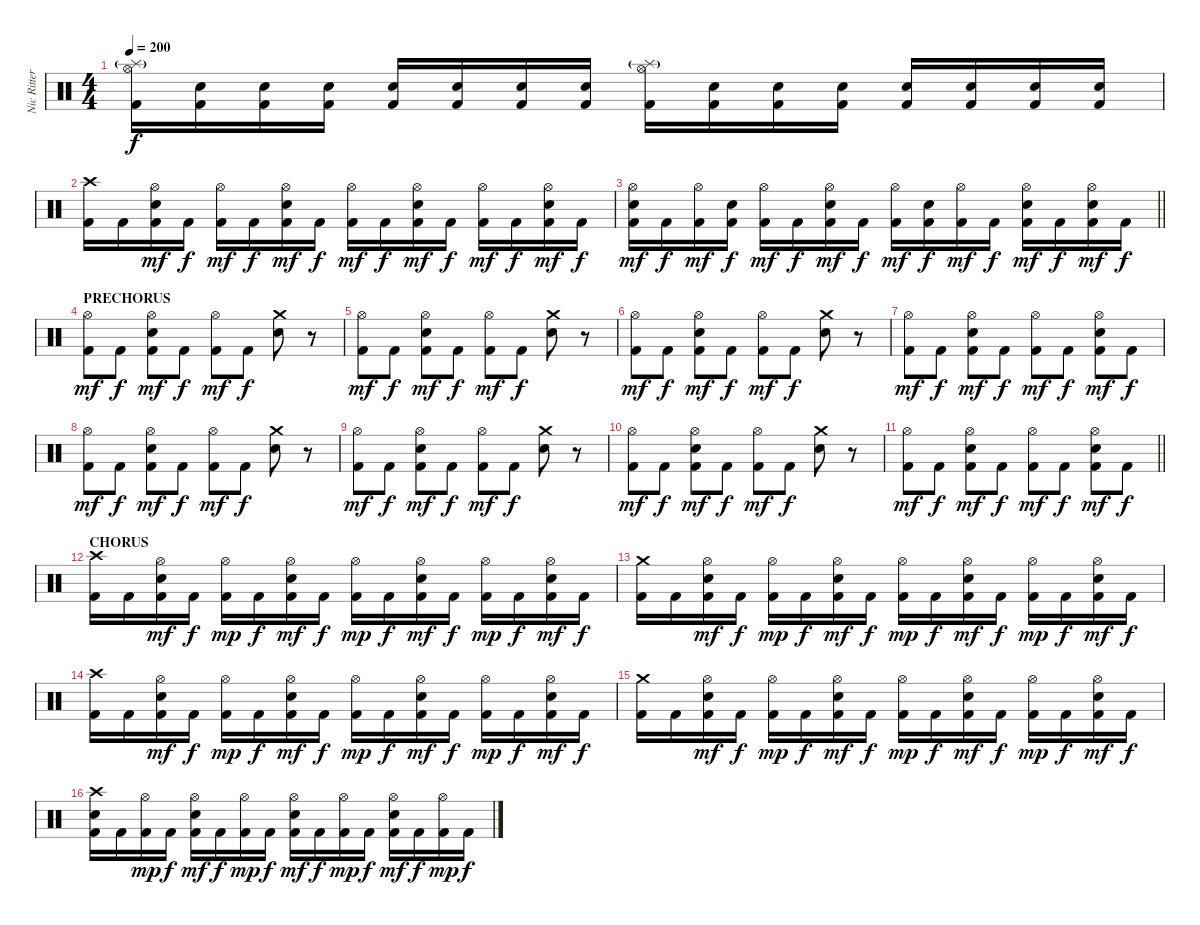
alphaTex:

\track ("Nic Ritter" "Nic Ritter") {instrument percussion}
\staff {score}
\articulation defaults
\ts (4 4)
\tempo 200
\clef neutral
\ks c
("Splash (hit)"{g} "Hi-Hat (open)" "Kick (hit) 2").16{dy f} ("Electric Snare (hit)" "Kick (hit) 2").16 ("Electric Snare (hit)" "Kick (hit) 2").16 ("Electric Snare (hit)" "Kick (hit) 2").16 ("Electric Snare (hit)" "Kick (hit) 2").16 ("Electric Snare (hit)" "Kick (hit) 2").16 ("Electric Snare (hit)" "Kick (hit) 2").16 ("Electric Snare (hit)" "Kick (hit) 2").16 ("Splash (hit)"{g} "Hi-Hat (open)" "Kick (hit) 2").16 ("Electric Snare (hit)" "Kick (hit) 2").16 ("Electric Snare (hit)" "Kick (hit) 2").16 ("Electric Snare (hit)" "Kick (hit) 2").16 ("Electric Snare (hit)" "Kick (hit) 2").16 ("Electric Snare (hit)" "Kick (hit) 2").16 ("Electric Snare (hit)" "Kick (hit) 2").16 ("Electric Snare (hit)" "Kick (hit) 2").16 |
("Crash high (hit)" "Kick (hit) 2").16 "Kick (hit) 2".16 ("Hi-Hat (open)" "Electric Snare (hit)" "Kick (hit) 2").16{dy mf} "Kick (hit) 2".16{dy f} ("Hi-Hat (open)" "Kick (hit) 2").16{dy mf} "Kick (hit) 2".16{dy f} ("Hi-Hat (open)" "Electric Snare (hit)" "Kick (hit) 2").16{dy mf} "Kick (hit) 2".16{dy f} ("Hi-Hat (open)" "Kick (hit) 2").16{dy mf} "Kick (hit) 2".16{dy f} ("Hi-Hat (open)" "Electric Snare (hit)" "Kick (hit) 2").16{dy mf} "Kick (hit) 2".16{dy f} ("Hi-Hat (open)" "Kick (hit) 2").16{dy mf} "Kick (hit) 2".16{dy f} ("Hi-Hat (open)" "Electric Snare (hit)" "Kick (hit) 2").16{dy mf} "Kick (hit) 2".16{dy f} |
\barLineRight lightlight
("Hi-Hat (open)" "Electric Snare (hit)" "Kick (hit) 2").16{dy mf} "Kick (hit) 2".16{dy f} ("Hi-Hat (open)" "Kick (hit) 2").16{dy mf} ("Electric Snare (hit)" "Kick (hit) 2").16{dy f} ("Hi-Hat (open)" "Kick (hit) 2").16{dy mf} "Kick (hit) 2".16{dy f} ("Hi-Hat (open)" "Electric Snare (hit)" "Kick (hit) 2").16{dy mf} "Kick (hit) 2".16{dy f} ("Hi-Hat (open)" "Kick (hit) 2").16{dy mf} ("Electric Snare (hit)" "Kick (hit) 2").16{dy f} ("Hi-Hat (open)" "Kick (hit) 2").16{dy mf} "Kick (hit) 2".16{dy f} ("Hi-Hat (open)" "Electric Snare (hit)" "Kick (hit) 2").16{dy mf} "Kick (hit) 2".16{dy f} ("Hi-Hat (open)" "Electric Snare (hit)" "Kick (hit) 2").16{dy mf} "Kick (hit) 2".16{dy f} |
\section ("" "PRECHORUS")
("Hi-Hat (open)" "Kick (hit) 2").8{dy mf} "Kick (hit) 2".8{dy f} ("Hi-Hat (open)" "Electric Snare (hit)" "Kick (hit) 2").8{dy mf} "Kick (hit) 2".8{dy f} ("Hi-Hat (open)" "Kick (hit) 2").8{dy mf} "Kick (hit) 2".8{dy f} ("Crash medium (hit)" "Electric Snare (hit)").8 r.8 |
("Hi-Hat (open)" "Kick (hit) 2").8{dy mf} "Kick (hit) 2".8{dy f} ("Hi-Hat (open)" "Electric Snare (hit)" "Kick (hit) 2").8{dy mf} "Kick (hit) 2".8{dy f} ("Hi-Hat (open)" "Kick (hit) 2").8{dy mf} "Kick (hit) 2".8{dy f} ("Crash medium (hit)" "Electric Snare (hit)").8 r.8 |
("Hi-Hat (open)" "Kick (hit) 2").8{dy mf} "Kick (hit) 2".8{dy f} ("Hi-Hat (open)" "Electric Snare (hit)" "Kick (hit) 2").8{dy mf} "Kick (hit) 2".8{dy f} ("Hi-Hat (open)" "Kick (hit) 2").8{dy mf} "Kick (hit) 2".8{dy f} ("Crash medium (hit)" "Electric Snare (hit)").8 r.8 |
("Hi-Hat (open)" "Kick (hit) 2").8{dy mf} "Kick (hit) 2".8{dy f} ("Hi-Hat (open)" "Electric Snare (hit)" "Kick (hit) 2").8{dy mf} "Kick (hit) 2".8{dy f} ("Hi-Hat (open)" "Kick (hit) 2").8{dy mf} "Kick (hit) 2".8{dy f} ("Hi-Hat (open)" "Electric Snare (hit)" "Kick (hit) 2").8{dy mf} "Kick (hit) 2".8{dy f} |
("Hi-Hat (open)" "Kick (hit) 2").8{dy mf} "Kick (hit) 2".8{dy f} ("Hi-Hat (open)" "Electric Snare (hit)" "Kick (hit) 2").8{dy mf} "Kick (hit) 2".8{dy f} ("Hi-Hat (open)" "Kick (hit) 2").8{dy mf} "Kick (hit) 2".8{dy f} ("Crash medium (hit)" "Electric Snare (hit)").8 r.8 |
("Hi-Hat (open)" "Kick (hit) 2").8{dy mf} "Kick (hit) 2".8{dy f} ("Hi-Hat (open)" "Electric Snare (hit)" "Kick (hit) 2").8{dy mf} "Kick (hit) 2".8{dy f} ("Hi-Hat (open)" "Kick (hit) 2").8{dy mf} "Kick (hit) 2".8{dy f} ("Crash medium (hit)" "Electric Snare (hit)").8 r.8 |
("Hi-Hat (open)" "Kick (hit) 2").8{dy mf} "Kick (hit) 2".8{dy f} ("Hi-Hat (open)" "Electric Snare (hit)" "Kick (hit) 2").8{dy mf} "Kick (hit) 2".8{dy f} ("Hi-Hat (open)" "Kick (hit) 2").8{dy mf} "Kick (hit) 2".8{dy f} ("Crash medium (hit)" "Electric Snare (hit)").8 r.8 |
\barLineRight lightlight
("Hi-Hat (open)" "Kick (hit) 2").8{dy mf} "Kick (hit) 2".8{dy f} ("Hi-Hat (open)" "Electric Snare (hit)" "Kick (hit) 2").8{dy mf} "Kick (hit) 2".8{dy f} ("Hi-Hat (open)" "Kick (hit) 2").8{dy mf} "Kick (hit) 2".8{dy f} ("Hi-Hat (open)" "Electric Snare (hit)" "Kick (hit) 2").8{dy mf} "Kick (hit) 2".8{dy f} |
\section ("" "CHORUS")
("Crash high (hit)" "Kick (hit) 2").16 "Kick (hit) 2".16 ("Hi-Hat (open)" "Electric Snare (hit)" "Kick (hit) 2").16{dy mf} "Kick (hit) 2".16{dy f} ("Hi-Hat (open)" "Kick (hit) 2").16{dy mp} "Kick (hit) 2".16{dy f} ("Hi-Hat (open)" "Electric Snare (hit)" "Kick (hit) 2").16{dy mf} "Kick (hit) 2".16{dy f} ("Hi-Hat (open)" "Kick (hit) 2").16{dy mp} "Kick (hit) 2".16{dy f} ("Hi-Hat (open)" "Electric Snare (hit)" "Kick (hit) 2").16{dy mf} "Kick (hit) 2".16{dy f} ("Hi-Hat (open)" "Kick (hit) 2").16{dy mp} "Kick (hit) 2".16{dy f} ("Hi-Hat (open)" "Electric Snare (hit)" "Kick (hit) 2").16{dy mf} "Kick (hit) 2".16{dy f} |
("Crash medium (hit)" "Kick (hit) 2").16 "Kick (hit) 2".16 ("Hi-Hat (open)" "Electric Snare (hit)" "Kick (hit) 2").16{dy mf} "Kick (hit) 2".16{dy f} ("Hi-Hat (open)" "Kick (hit) 2").16{dy mp} "Kick (hit) 2".16{dy f} ("Hi-Hat (open)" "Electric Snare (hit)" "Kick (hit) 2").16{dy mf} "Kick (hit) 2".16{dy f} ("Hi-Hat (open)" "Kick (hit) 2").16{dy mp} "Kick (hit) 2".16{dy f} ("Hi-Hat (open)" "Electric Snare (hit)" "Kick (hit) 2").16{dy mf} "Kick (hit) 2".16{dy f} ("Hi-Hat (open)" "Kick (hit) 2").16{dy mp} "Kick (hit) 2".16{dy f} ("Hi-Hat (open)" "Electric Snare (hit)" "Kick (hit) 2").16{dy mf} "Kick (hit) 2".16{dy f} |
("Crash high (hit)" "Kick (hit) 2").16 "Kick (hit) 2".16 ("Hi-Hat (open)" "Electric Snare (hit)" "Kick (hit) 2").16{dy mf} "Kick (hit) 2".16{dy f} ("Hi-Hat (open)" "Kick (hit) 2").16{dy mp} "Kick (hit) 2".16{dy f} ("Hi-Hat (open)" "Electric Snare (hit)" "Kick (hit) 2").16{dy mf} "Kick (hit) 2".16{dy f} ("Hi-Hat (open)" "Kick (hit) 2").16{dy mp} "Kick (hit) 2".16{dy f} ("Hi-Hat (open)" "Electric Snare (hit)" "Kick (hit) 2").16{dy mf} "Kick (hit) 2".16{dy f} ("Hi-Hat (open)" "Kick (hit) 2").16{dy mp} "Kick (hit) 2".16{dy f} ("Hi-Hat (open)" "Electric Snare (hit)" "Kick (hit) 2").16{dy mf} "Kick (hit) 2".16{dy f} |
("Crash medium (hit)" "Kick (hit) 2").16 "Kick (hit) 2".16 ("Hi-Hat (open)" "Electric Snare (hit)" "Kick (hit) 2").16{dy mf} "Kick (hit) 2".16{dy f} ("Hi-Hat (open)" "Kick (hit) 2").16{dy mp} "Kick (hit) 2".16{dy f} ("Hi-Hat (open)" "Electric Snare (hit)" "Kick (hit) 2").16{dy mf} "Kick (hit) 2".16{dy f} ("Hi-Hat (open)" "Kick (hit) 2").16{dy mp} "Kick (hit) 2".16{dy f} ("Hi-Hat (open)" "Electric Snare (hit)" "Kick (hit) 2").16{dy mf} "Kick (hit) 2".16{dy f} ("Hi-Hat (open)" "Kick (hit) 2").16{dy mp} "Kick (hit) 2".16{dy f} ("Hi-Hat (open)" "Electric Snare (hit)" "Kick (hit) 2").16{dy mf} "Kick (hit) 2".16{dy f} |
("Crash high (hit)" "Electric Snare (hit)" "Kick (hit) 2").16 "Kick (hit) 2".16 ("Hi-Hat (open)" "Kick (hit) 2").16{dy mp} "Kick (hit) 2".16{dy f} ("Hi-Hat (open)" "Electric Snare (hit)" "Kick (hit) 2").16{dy mf} "Kick (hit) 2".16{dy f} ("Hi-Hat (open)" "Kick (hit) 2").16{dy mp} "Kick (hit) 2".16{dy f} ("Hi-Hat (open)" "Electric Snare (hit)" "Kick (hit) 2").16{dy mf} "Kick (hit) 2".16{dy f} ("Hi-Hat (open)" "Kick (hit) 2").16{dy mp} "Kick (hit) 2".16{dy f} ("Hi-Hat (open)" "Electric Snare (hit)" "Kick (hit) 2").16{dy mf} "Kick (hit) 2".16{dy f} ("Hi-Hat (open)" "Kick (hit) 2").16{dy mp} "Kick (hit) 2".16{dy f}
